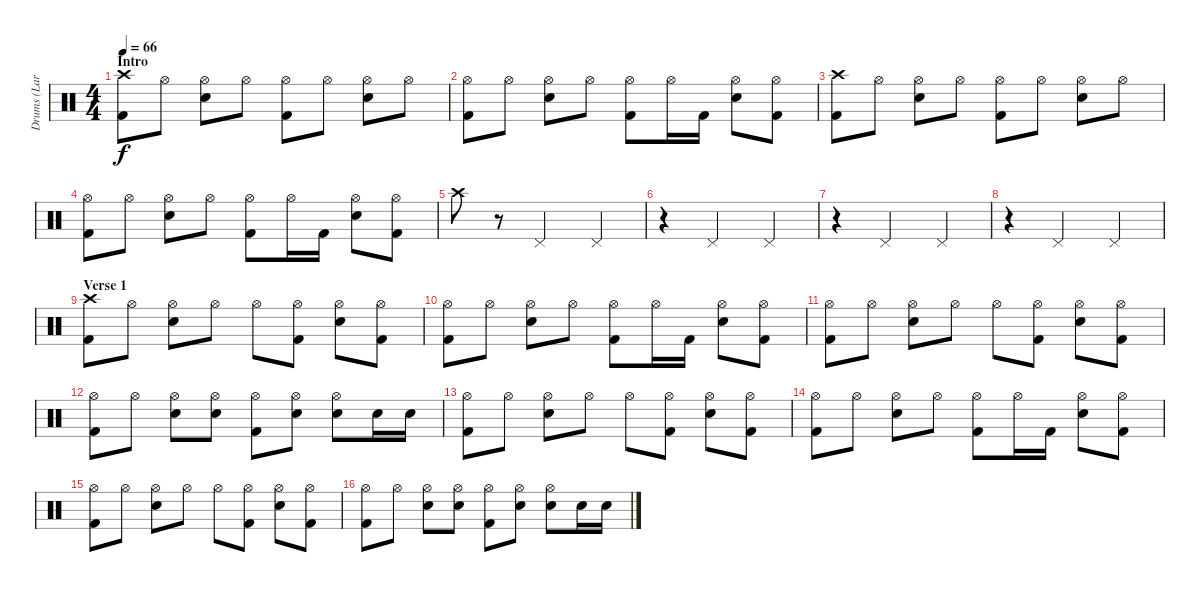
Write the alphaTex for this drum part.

\track ("Drums (Lars)" "Drums (Lar") {instrument percussion}
\staff {score}
\articulation defaults
\ts (4 4)
\section ("" "Intro")
\tempo 66
\clef neutral
\ks c
("Crash high (hit)" "Kick (hit) 2").8{dy f} "Hi-Hat (open)".8 ("Hi-Hat (open)" "Snare (hit) 2").8 "Hi-Hat (open)".8 ("Hi-Hat (open)" "Kick (hit) 2").8 "Hi-Hat (open)".8 ("Hi-Hat (open)" "Snare (hit) 2").8 "Hi-Hat (open)".8 |
("Hi-Hat (open)" "Kick (hit) 2").8 "Hi-Hat (open)".8 ("Hi-Hat (open)" "Snare (hit) 2").8 "Hi-Hat (open)".8 ("Hi-Hat (open)" "Kick (hit) 2").8 "Hi-Hat (open)".16 "Kick (hit) 2".16 ("Hi-Hat (open)" "Snare (hit) 2").8 ("Hi-Hat (open)" "Kick (hit) 2").8 |
("Crash high (hit)" "Kick (hit) 2").8 "Hi-Hat (open)".8 ("Hi-Hat (open)" "Snare (hit) 2").8 "Hi-Hat (open)".8 ("Hi-Hat (open)" "Kick (hit) 2").8 "Hi-Hat (open)".8 ("Hi-Hat (open)" "Snare (hit) 2").8 "Hi-Hat (open)".8 |
("Hi-Hat (open)" "Kick (hit) 2").8 "Hi-Hat (open)".8 ("Hi-Hat (open)" "Snare (hit) 2").8 "Hi-Hat (open)".8 ("Hi-Hat (open)" "Kick (hit) 2").8 "Hi-Hat (open)".16 "Kick (hit) 2".16 ("Hi-Hat (open)" "Snare (hit) 2").8 ("Hi-Hat (open)" "Kick (hit) 2").8 |
"Crash high (hit)".8 r.8 "Pedal Hi-Hat (hit)".2 "Pedal Hi-Hat (hit)".4 |
r.4 "Pedal Hi-Hat (hit)".2 "Pedal Hi-Hat (hit)".4 |
r.4 "Pedal Hi-Hat (hit)".2 "Pedal Hi-Hat (hit)".4 |
r.4 "Pedal Hi-Hat (hit)".2 "Pedal Hi-Hat (hit)".4 |
\section ("" "Verse 1")
("Crash high (hit)" "Kick (hit) 2").8 "Hi-Hat (open)".8 ("Hi-Hat (open)" "Snare (hit) 2").8 "Hi-Hat (open)".8 "Hi-Hat (open)".8 ("Hi-Hat (open)" "Kick (hit) 2").8 ("Hi-Hat (open)" "Snare (hit) 2").8 ("Hi-Hat (open)" "Kick (hit) 2").8 |
("Hi-Hat (open)" "Kick (hit) 2").8 "Hi-Hat (open)".8 ("Hi-Hat (open)" "Snare (hit) 2").8 "Hi-Hat (open)".8 ("Hi-Hat (open)" "Kick (hit) 2").8 "Hi-Hat (open)".16 "Kick (hit) 2".16 ("Hi-Hat (open)" "Snare (hit) 2").8 ("Hi-Hat (open)" "Kick (hit) 2").8 |
("Hi-Hat (open)" "Kick (hit) 2").8 "Hi-Hat (open)".8 ("Hi-Hat (open)" "Snare (hit) 2").8 "Hi-Hat (open)".8 "Hi-Hat (open)".8 ("Hi-Hat (open)" "Kick (hit) 2").8 ("Hi-Hat (open)" "Snare (hit) 2").8 ("Hi-Hat (open)" "Kick (hit) 2").8 |
("Hi-Hat (open)" "Kick (hit) 2").8 "Hi-Hat (open)".8 ("Hi-Hat (open)" "Snare (hit) 2").8 ("Hi-Hat (open)" "Snare (hit) 2").8 ("Hi-Hat (open)" "Kick (hit) 2").8 ("Hi-Hat (open)" "Snare (hit) 2").8 ("Hi-Hat (open)" "Snare (hit) 2").8 "Snare (hit) 2".16 "Snare (hit) 2".16 |
("Hi-Hat (open)" "Kick (hit) 2").8 "Hi-Hat (open)".8 ("Hi-Hat (open)" "Snare (hit) 2").8 "Hi-Hat (open)".8 "Hi-Hat (open)".8 ("Hi-Hat (open)" "Kick (hit) 2").8 ("Hi-Hat (open)" "Snare (hit) 2").8 ("Hi-Hat (open)" "Kick (hit) 2").8 |
("Hi-Hat (open)" "Kick (hit) 2").8 "Hi-Hat (open)".8 ("Hi-Hat (open)" "Snare (hit) 2").8 "Hi-Hat (open)".8 ("Hi-Hat (open)" "Kick (hit) 2").8 "Hi-Hat (open)".16 "Kick (hit) 2".16 ("Hi-Hat (open)" "Snare (hit) 2").8 ("Hi-Hat (open)" "Kick (hit) 2").8 |
("Hi-Hat (open)" "Kick (hit) 2").8 "Hi-Hat (open)".8 ("Hi-Hat (open)" "Snare (hit) 2").8 "Hi-Hat (open)".8 "Hi-Hat (open)".8 ("Hi-Hat (open)" "Kick (hit) 2").8 ("Hi-Hat (open)" "Snare (hit) 2").8 ("Hi-Hat (open)" "Kick (hit) 2").8 |
("Hi-Hat (open)" "Kick (hit) 2").8 "Hi-Hat (open)".8 ("Hi-Hat (open)" "Snare (hit) 2").8 ("Hi-Hat (open)" "Snare (hit) 2").8 ("Hi-Hat (open)" "Kick (hit) 2").8 ("Hi-Hat (open)" "Snare (hit) 2").8 ("Hi-Hat (open)" "Snare (hit) 2").8 "Snare (hit) 2".16 "Snare (hit) 2".16
